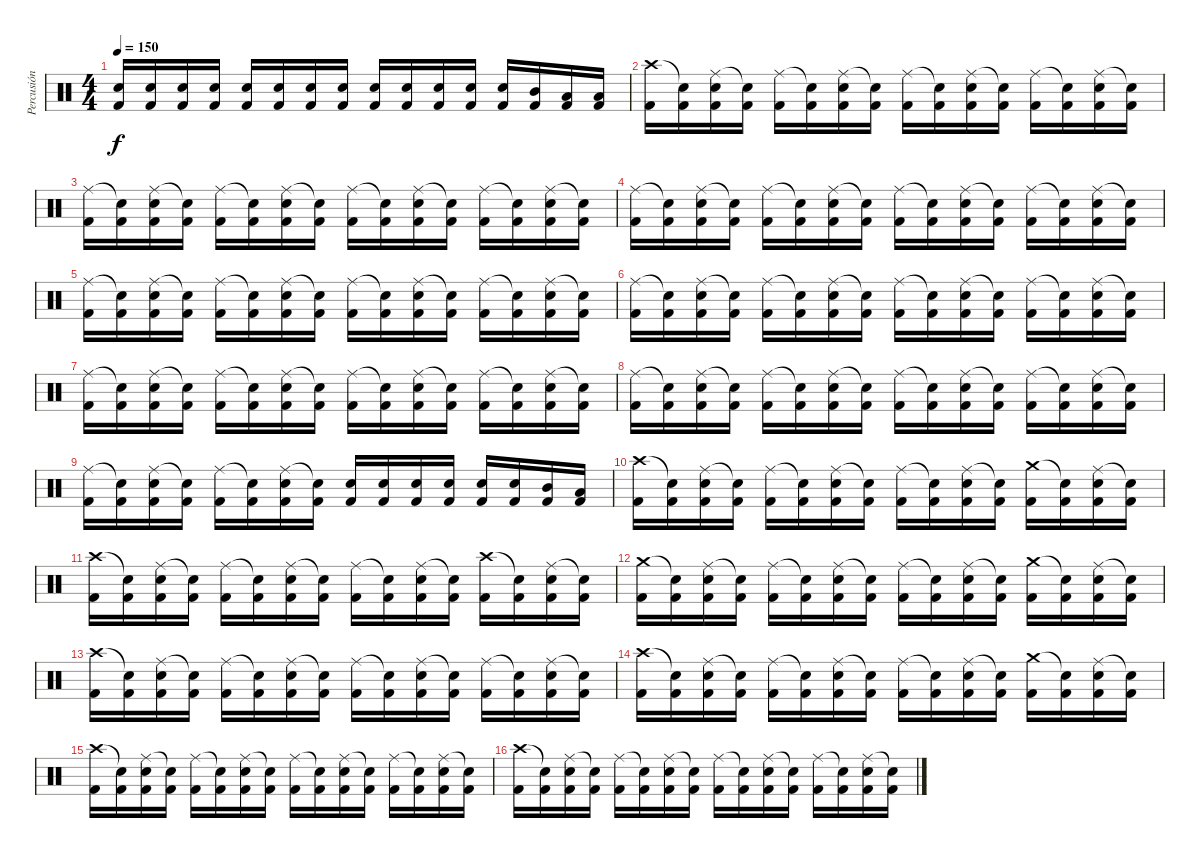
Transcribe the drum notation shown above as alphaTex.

\track ("Percusión" "Percusión") {instrument percussion}
\staff {score}
\articulation defaults
\ts (4 4)
\tempo 150
\clef neutral
\ks c
("Electric Snare (hit)" "Kick (hit) 2").16{dy f} ("Electric Snare (hit)" "Kick (hit) 2").16 ("Electric Snare (hit)" "Kick (hit) 2").16 ("Electric Snare (hit)" "Kick (hit) 2").16 ("Electric Snare (hit)" "Kick (hit) 2").16 ("Electric Snare (hit)" "Kick (hit) 2").16 ("Electric Snare (hit)" "Kick (hit) 2").16 ("Electric Snare (hit)" "Kick (hit) 2").16 ("Electric Snare (hit)" "Kick (hit) 2").16 ("Electric Snare (hit)" "Kick (hit) 2").16 ("Electric Snare (hit)" "Kick (hit) 2").16 ("Electric Snare (hit)" "Kick (hit) 2").16 ("Electric Snare (hit)" "Kick (hit) 2").16 ("Mid Tom (hit)" "Kick (hit) 2").16 ("Low Tom (hit)" "Kick (hit) 2").16 ("Low Tom (hit)" "Kick (hit) 2").16 |
("Crash high (hit)" "Kick (hit) 2").16 ("Snare (hit)"{t} "Kick (hit) 2").16 ("Ride (middle)" "Electric Snare (hit)" "Kick (hit) 2").16 ("Snare (hit)"{t} "Kick (hit) 2").16 ("Ride (middle)" "Kick (hit) 2").16 ("Snare (hit)"{t} "Kick (hit) 2").16 ("Ride (middle)" "Electric Snare (hit)" "Kick (hit) 2").16 ("Snare (hit)"{t} "Kick (hit) 2").16 ("Ride (middle)" "Kick (hit) 2").16 ("Snare (hit)"{t} "Kick (hit) 2").16 ("Ride (middle)" "Electric Snare (hit)" "Kick (hit) 2").16 ("Snare (hit)"{t} "Kick (hit) 2").16 ("Ride (middle)" "Kick (hit) 2").16 ("Snare (hit)"{t} "Kick (hit) 2").16 ("Ride (middle)" "Electric Snare (hit)" "Kick (hit) 2").16 ("Snare (hit)"{t} "Kick (hit) 2").16 |
("Ride (middle)" "Kick (hit) 2").16 ("Snare (hit)"{t} "Kick (hit) 2").16 ("Ride (middle)" "Electric Snare (hit)" "Kick (hit) 2").16 ("Snare (hit)"{t} "Kick (hit) 2").16 ("Ride (middle)" "Kick (hit) 2").16 ("Snare (hit)"{t} "Kick (hit) 2").16 ("Ride (middle)" "Electric Snare (hit)" "Kick (hit) 2").16 ("Snare (hit)"{t} "Kick (hit) 2").16 ("Ride (middle)" "Kick (hit) 2").16 ("Snare (hit)"{t} "Kick (hit) 2").16 ("Ride (middle)" "Electric Snare (hit)" "Kick (hit) 2").16 ("Snare (hit)"{t} "Kick (hit) 2").16 ("Ride (middle)" "Kick (hit) 2").16 ("Snare (hit)"{t} "Kick (hit) 2").16 ("Ride (middle)" "Electric Snare (hit)" "Kick (hit) 2").16 ("Snare (hit)"{t} "Kick (hit) 2").16 |
("Ride (middle)" "Kick (hit) 2").16 ("Snare (hit)"{t} "Kick (hit) 2").16 ("Ride (middle)" "Electric Snare (hit)" "Kick (hit) 2").16 ("Snare (hit)"{t} "Kick (hit) 2").16 ("Ride (middle)" "Kick (hit) 2").16 ("Snare (hit)"{t} "Kick (hit) 2").16 ("Ride (middle)" "Electric Snare (hit)" "Kick (hit) 2").16 ("Snare (hit)"{t} "Kick (hit) 2").16 ("Ride (middle)" "Kick (hit) 2").16 ("Snare (hit)"{t} "Kick (hit) 2").16 ("Ride (middle)" "Electric Snare (hit)" "Kick (hit) 2").16 ("Snare (hit)"{t} "Kick (hit) 2").16 ("Ride (middle)" "Kick (hit) 2").16 ("Snare (hit)"{t} "Kick (hit) 2").16 ("Ride (middle)" "Electric Snare (hit)" "Kick (hit) 2").16 ("Snare (hit)"{t} "Kick (hit) 2").16 |
("Ride (middle)" "Kick (hit) 2").16 ("Snare (hit)"{t} "Kick (hit) 2").16 ("Ride (middle)" "Electric Snare (hit)" "Kick (hit) 2").16 ("Snare (hit)"{t} "Kick (hit) 2").16 ("Ride (middle)" "Kick (hit) 2").16 ("Snare (hit)"{t} "Kick (hit) 2").16 ("Ride (middle)" "Electric Snare (hit)" "Kick (hit) 2").16 ("Snare (hit)"{t} "Kick (hit) 2").16 ("Ride (middle)" "Kick (hit) 2").16 ("Snare (hit)"{t} "Kick (hit) 2").16 ("Ride (middle)" "Electric Snare (hit)" "Kick (hit) 2").16 ("Snare (hit)"{t} "Kick (hit) 2").16 ("Ride (middle)" "Kick (hit) 2").16 ("Snare (hit)"{t} "Kick (hit) 2").16 ("Ride (middle)" "Electric Snare (hit)" "Kick (hit) 2").16 ("Snare (hit)"{t} "Kick (hit) 2").16 |
("Ride (middle)" "Kick (hit) 2").16 ("Snare (hit)"{t} "Kick (hit) 2").16 ("Ride (middle)" "Electric Snare (hit)" "Kick (hit) 2").16 ("Snare (hit)"{t} "Kick (hit) 2").16 ("Ride (middle)" "Kick (hit) 2").16 ("Snare (hit)"{t} "Kick (hit) 2").16 ("Ride (middle)" "Electric Snare (hit)" "Kick (hit) 2").16 ("Snare (hit)"{t} "Kick (hit) 2").16 ("Ride (middle)" "Kick (hit) 2").16 ("Snare (hit)"{t} "Kick (hit) 2").16 ("Ride (middle)" "Electric Snare (hit)" "Kick (hit) 2").16 ("Snare (hit)"{t} "Kick (hit) 2").16 ("Ride (middle)" "Kick (hit) 2").16 ("Snare (hit)"{t} "Kick (hit) 2").16 ("Ride (middle)" "Electric Snare (hit)" "Kick (hit) 2").16 ("Snare (hit)"{t} "Kick (hit) 2").16 |
("Ride (middle)" "Kick (hit) 2").16 ("Snare (hit)"{t} "Kick (hit) 2").16 ("Ride (middle)" "Electric Snare (hit)" "Kick (hit) 2").16 ("Snare (hit)"{t} "Kick (hit) 2").16 ("Ride (middle)" "Kick (hit) 2").16 ("Snare (hit)"{t} "Kick (hit) 2").16 ("Ride (middle)" "Electric Snare (hit)" "Kick (hit) 2").16 ("Snare (hit)"{t} "Kick (hit) 2").16 ("Ride (middle)" "Kick (hit) 2").16 ("Snare (hit)"{t} "Kick (hit) 2").16 ("Ride (middle)" "Electric Snare (hit)" "Kick (hit) 2").16 ("Snare (hit)"{t} "Kick (hit) 2").16 ("Ride (middle)" "Kick (hit) 2").16 ("Snare (hit)"{t} "Kick (hit) 2").16 ("Ride (middle)" "Electric Snare (hit)" "Kick (hit) 2").16 ("Snare (hit)"{t} "Kick (hit) 2").16 |
("Ride (middle)" "Kick (hit) 2").16 ("Snare (hit)"{t} "Kick (hit) 2").16 ("Ride (middle)" "Electric Snare (hit)" "Kick (hit) 2").16 ("Snare (hit)"{t} "Kick (hit) 2").16 ("Ride (middle)" "Kick (hit) 2").16 ("Snare (hit)"{t} "Kick (hit) 2").16 ("Ride (middle)" "Electric Snare (hit)" "Kick (hit) 2").16 ("Snare (hit)"{t} "Kick (hit) 2").16 ("Ride (middle)" "Kick (hit) 2").16 ("Snare (hit)"{t} "Kick (hit) 2").16 ("Ride (middle)" "Electric Snare (hit)" "Kick (hit) 2").16 ("Snare (hit)"{t} "Kick (hit) 2").16 ("Ride (middle)" "Kick (hit) 2").16 ("Snare (hit)"{t} "Kick (hit) 2").16 ("Ride (middle)" "Electric Snare (hit)" "Kick (hit) 2").16 ("Snare (hit)"{t} "Kick (hit) 2").16 |
("Ride (middle)" "Kick (hit) 2").16 ("Snare (hit)"{t} "Kick (hit) 2").16 ("Ride (middle)" "Electric Snare (hit)" "Kick (hit) 2").16 ("Snare (hit)"{t} "Kick (hit) 2").16 ("Ride (middle)" "Kick (hit) 2").16 ("Snare (hit)"{t} "Kick (hit) 2").16 ("Ride (middle)" "Electric Snare (hit)" "Kick (hit) 2").16 ("Snare (hit)"{t} "Kick (hit) 2").16 ("Electric Snare (hit)" "Kick (hit) 2").16 ("Electric Snare (hit)" "Kick (hit) 2").16 ("Electric Snare (hit)" "Kick (hit) 2").16 ("Electric Snare (hit)" "Kick (hit) 2").16 ("Electric Snare (hit)" "Kick (hit) 2").16 ("Electric Snare (hit)" "Kick (hit) 2").16 ("Mid Tom (hit)" "Kick (hit) 2").16 ("Low Tom (hit)" "Kick (hit) 2").16 |
("Crash high (hit)" "Kick (hit) 2").16 ("Snare (hit)"{t} "Kick (hit) 2").16 ("Ride (middle)" "Electric Snare (hit)" "Kick (hit) 2").16 ("Snare (hit)"{t} "Kick (hit) 2").16 ("Ride (middle)" "Kick (hit) 2").16 ("Snare (hit)"{t} "Kick (hit) 2").16 ("Ride (middle)" "Electric Snare (hit)" "Kick (hit) 2").16 ("Snare (hit)"{t} "Kick (hit) 2").16 ("Ride (middle)" "Kick (hit) 2").16 ("Snare (hit)"{t} "Kick (hit) 2").16 ("Ride (middle)" "Electric Snare (hit)" "Kick (hit) 2").16 ("Snare (hit)"{t} "Kick (hit) 2").16 ("Crash medium (hit)" "Kick (hit) 2").16 ("Snare (hit)"{t} "Kick (hit) 2").16 ("Ride (middle)" "Electric Snare (hit)" "Kick (hit) 2").16 ("Snare (hit)"{t} "Kick (hit) 2").16 |
("Crash high (hit)" "Kick (hit) 2").16 ("Snare (hit)"{t} "Kick (hit) 2").16 ("Ride (middle)" "Electric Snare (hit)" "Kick (hit) 2").16 ("Snare (hit)"{t} "Kick (hit) 2").16 ("Ride (middle)" "Kick (hit) 2").16 ("Snare (hit)"{t} "Kick (hit) 2").16 ("Ride (middle)" "Electric Snare (hit)" "Kick (hit) 2").16 ("Snare (hit)"{t} "Kick (hit) 2").16 ("Ride (middle)" "Kick (hit) 2").16 ("Snare (hit)"{t} "Kick (hit) 2").16 ("Ride (middle)" "Electric Snare (hit)" "Kick (hit) 2").16 ("Snare (hit)"{t} "Kick (hit) 2").16 ("Crash high (hit)" "Kick (hit) 2").16 ("Snare (hit)"{t} "Kick (hit) 2").16 ("Ride (middle)" "Electric Snare (hit)" "Kick (hit) 2").16 ("Snare (hit)"{t} "Kick (hit) 2").16 |
("Crash medium (hit)" "Kick (hit) 2").16 ("Snare (hit)"{t} "Kick (hit) 2").16 ("Ride (middle)" "Electric Snare (hit)" "Kick (hit) 2").16 ("Snare (hit)"{t} "Kick (hit) 2").16 ("Ride (middle)" "Kick (hit) 2").16 ("Snare (hit)"{t} "Kick (hit) 2").16 ("Ride (middle)" "Electric Snare (hit)" "Kick (hit) 2").16 ("Snare (hit)"{t} "Kick (hit) 2").16 ("Ride (middle)" "Kick (hit) 2").16 ("Snare (hit)"{t} "Kick (hit) 2").16 ("Ride (middle)" "Electric Snare (hit)" "Kick (hit) 2").16 ("Snare (hit)"{t} "Kick (hit) 2").16 ("Crash medium (hit)" "Kick (hit) 2").16 ("Snare (hit)"{t} "Kick (hit) 2").16 ("Ride (middle)" "Electric Snare (hit)" "Kick (hit) 2").16 ("Snare (hit)"{t} "Kick (hit) 2").16 |
("Crash high (hit)" "Kick (hit) 2").16 ("Snare (hit)"{t} "Kick (hit) 2").16 ("Ride (middle)" "Electric Snare (hit)" "Kick (hit) 2").16 ("Snare (hit)"{t} "Kick (hit) 2").16 ("Ride (middle)" "Kick (hit) 2").16 ("Snare (hit)"{t} "Kick (hit) 2").16 ("Ride (middle)" "Electric Snare (hit)" "Kick (hit) 2").16 ("Snare (hit)"{t} "Kick (hit) 2").16 ("Ride (middle)" "Kick (hit) 2").16 ("Snare (hit)"{t} "Kick (hit) 2").16 ("Ride (middle)" "Electric Snare (hit)" "Kick (hit) 2").16 ("Snare (hit)"{t} "Kick (hit) 2").16 ("Ride (middle)" "Kick (hit) 2").16 ("Snare (hit)"{t} "Kick (hit) 2").16 ("Ride (middle)" "Electric Snare (hit)" "Kick (hit) 2").16 ("Snare (hit)"{t} "Kick (hit) 2").16 |
("Crash high (hit)" "Kick (hit) 2").16 ("Snare (hit)"{t} "Kick (hit) 2").16 ("Ride (middle)" "Electric Snare (hit)" "Kick (hit) 2").16 ("Snare (hit)"{t} "Kick (hit) 2").16 ("Ride (middle)" "Kick (hit) 2").16 ("Snare (hit)"{t} "Kick (hit) 2").16 ("Ride (middle)" "Electric Snare (hit)" "Kick (hit) 2").16 ("Snare (hit)"{t} "Kick (hit) 2").16 ("Ride (middle)" "Kick (hit) 2").16 ("Snare (hit)"{t} "Kick (hit) 2").16 ("Ride (middle)" "Electric Snare (hit)" "Kick (hit) 2").16 ("Snare (hit)"{t} "Kick (hit) 2").16 ("Crash medium (hit)" "Kick (hit) 2").16 ("Snare (hit)"{t} "Kick (hit) 2").16 ("Ride (middle)" "Electric Snare (hit)" "Kick (hit) 2").16 ("Snare (hit)"{t} "Kick (hit) 2").16 |
("Crash high (hit)" "Kick (hit) 2").16 ("Snare (hit)"{t} "Kick (hit) 2").16 ("Ride (middle)" "Electric Snare (hit)" "Kick (hit) 2").16 ("Snare (hit)"{t} "Kick (hit) 2").16 ("Ride (middle)" "Kick (hit) 2").16 ("Snare (hit)"{t} "Kick (hit) 2").16 ("Ride (middle)" "Electric Snare (hit)" "Kick (hit) 2").16 ("Snare (hit)"{t} "Kick (hit) 2").16 ("Ride (middle)" "Kick (hit) 2").16 ("Snare (hit)"{t} "Kick (hit) 2").16 ("Ride (middle)" "Electric Snare (hit)" "Kick (hit) 2").16 ("Snare (hit)"{t} "Kick (hit) 2").16 ("Ride (middle)" "Kick (hit) 2").16 ("Snare (hit)"{t} "Kick (hit) 2").16 ("Ride (middle)" "Electric Snare (hit)" "Kick (hit) 2").16 ("Snare (hit)"{t} "Kick (hit) 2").16 |
("Crash high (hit)" "Kick (hit) 2").16 ("Snare (hit)"{t} "Kick (hit) 2").16 ("Ride (middle)" "Electric Snare (hit)" "Kick (hit) 2").16 ("Snare (hit)"{t} "Kick (hit) 2").16 ("Ride (middle)" "Kick (hit) 2").16 ("Snare (hit)"{t} "Kick (hit) 2").16 ("Ride (middle)" "Electric Snare (hit)" "Kick (hit) 2").16 ("Snare (hit)"{t} "Kick (hit) 2").16 ("Ride (middle)" "Kick (hit) 2").16 ("Snare (hit)"{t} "Kick (hit) 2").16 ("Ride (middle)" "Electric Snare (hit)" "Kick (hit) 2").16 ("Snare (hit)"{t} "Kick (hit) 2").16 ("Ride (middle)" "Kick (hit) 2").16 ("Snare (hit)"{t} "Kick (hit) 2").16 ("Ride (middle)" "Electric Snare (hit)" "Kick (hit) 2").16 ("Snare (hit)"{t} "Kick (hit) 2").16
